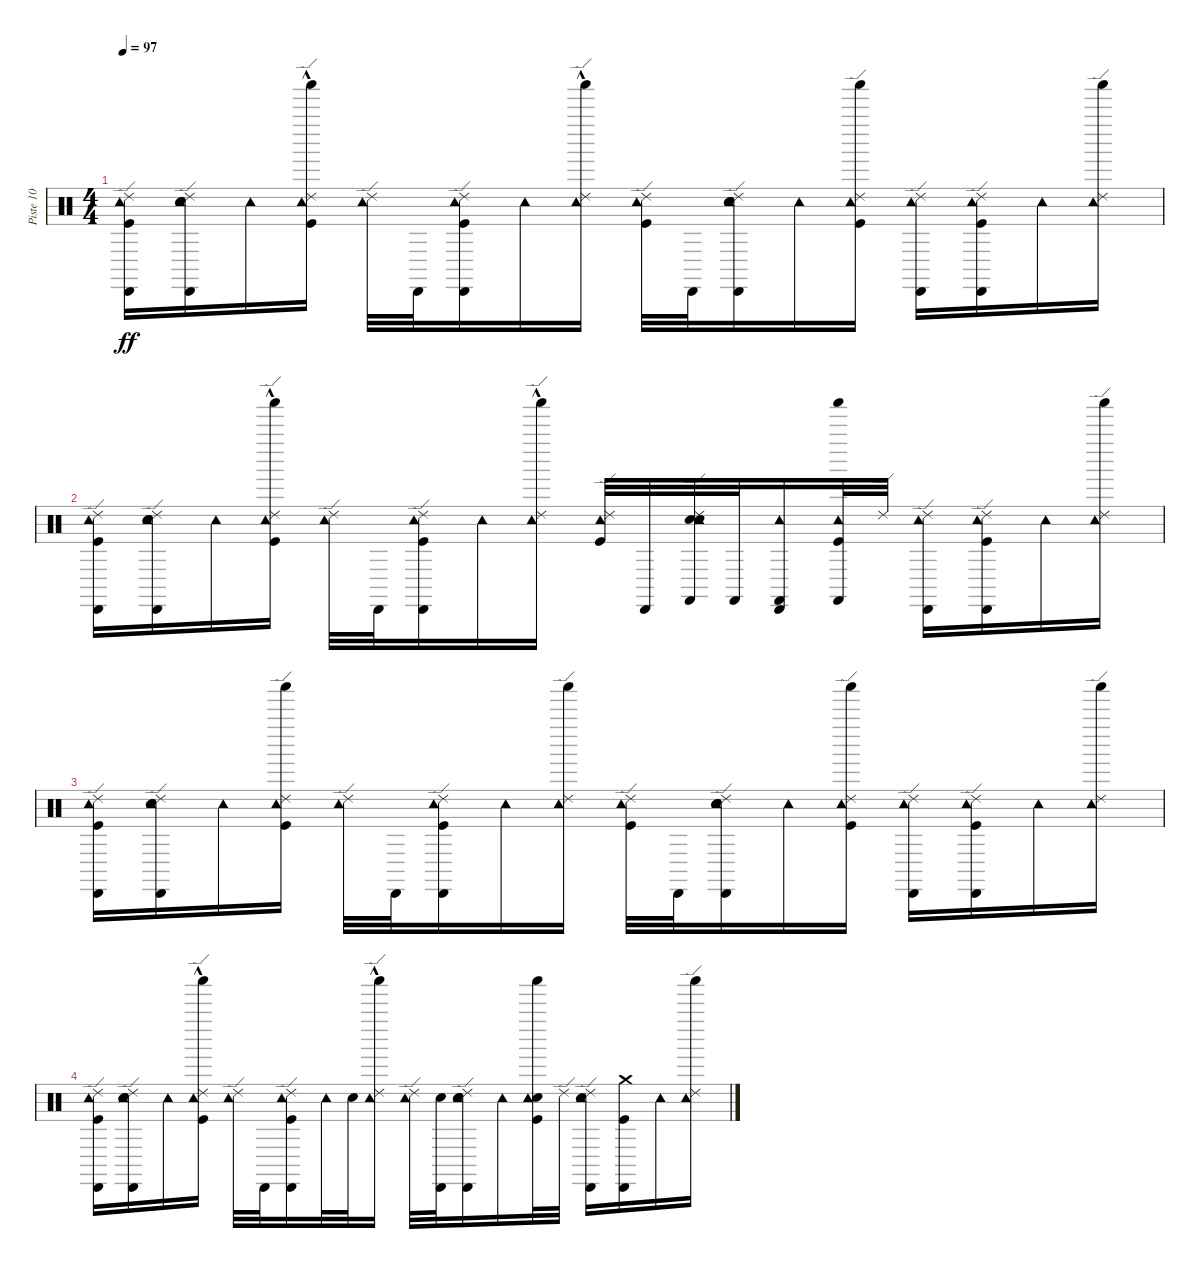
\track ("Piste 10" "Piste 10") {instrument percussion}
\staff {score}
\articulation defaults
\ts (4 4)
\tempo 97
\clef neutral
\ks c
("Cabasa (hit)" "Kick (hit)" "Tambourine (hit)" "Ride (edge) 2").16{dy ff} ("Cabasa (hit)" "Hand Clap (hit)" "Electric Snare (hit)" "Tambourine (hit)" "Ride (edge) 2").16 "Tambourine (hit)".16 ("Shaker (hit)"{hac} "Kick (hit)" "Tambourine (hit)" "Ride (edge) 2").16 ("Tambourine (hit)" "Ride (edge) 2").32 "Cabasa (hit)".32 ("Cabasa (hit)" "Kick (hit)" "Tambourine (hit)" "Ride (edge) 2").16 "Tambourine (hit)".16 ("Shaker (hit)"{hac} "Tambourine (hit)" "Ride (edge) 2").16 ("Kick (hit)" "Tambourine (hit)" "Ride (edge) 2").32 "Cabasa (hit)".32 ("Cabasa (hit)" "Hand Clap (hit)" "Electric Snare (hit)" "Tambourine (hit)" "Ride (edge) 2").16 "Tambourine (hit)".16 ("Shaker (hit)" "Kick (hit)" "Tambourine (hit)" "Ride (edge) 2").16 ("Cabasa (hit)" "Tambourine (hit)" "Ride (edge) 2").16 ("Cabasa (hit)" "Kick (hit)" "Tambourine (hit)" "Ride (edge) 2").16 "Tambourine (hit)".16 ("Shaker (hit)" "Tambourine (hit)" "Ride (edge) 2").16 |
("Cabasa (hit)" "Kick (hit)" "Tambourine (hit)" "Ride (edge) 2").16 ("Cabasa (hit)" "Hand Clap (hit)" "Electric Snare (hit)" "Tambourine (hit)" "Ride (edge) 2").16 "Tambourine (hit)".16 ("Shaker (hit)"{hac} "Kick (hit)" "Tambourine (hit)" "Ride (edge) 2").16 ("Tambourine (hit)" "Ride (edge) 2").32 "Cabasa (hit)".32 ("Cabasa (hit)" "Kick (hit)" "Tambourine (hit)" "Ride (edge) 2").16 "Tambourine (hit)".16 ("Shaker (hit)"{hac} "Tambourine (hit)" "Ride (edge) 2").16 ("Kick (hit)" "Tambourine (hit)" "Ride (edge) 2").32 "Cabasa (hit)".32 ("Castanets (hit)" "Hand Clap (hit)" "Electric Snare (hit)" "Tambourine (hit)" "Ride (edge) 2").32 "Castanets (hit)".32 ("Cabasa (hit)" "Castanets (hit)" "Tambourine (hit)").16 ("Shaker (hit)" "Castanets (hit)" "Kick (hit)" "Tambourine (hit)").32 "Ride (edge) 2".32 ("Cabasa (hit)" "Tambourine (hit)" "Ride (edge) 2").16 ("Cabasa (hit)" "Kick (hit)" "Tambourine (hit)" "Ride (edge) 2").16 "Tambourine (hit)".16 ("Shaker (hit)" "Tambourine (hit)" "Ride (edge) 2").16 |
("Cabasa (hit)" "Kick (hit)" "Tambourine (hit)" "Ride (edge) 2").16 ("Cabasa (hit)" "Hand Clap (hit)" "Electric Snare (hit)" "Tambourine (hit)" "Ride (edge) 2").16 "Tambourine (hit)".16 ("Shaker (hit)" "Kick (hit)" "Tambourine (hit)" "Ride (edge) 2").16 ("Tambourine (hit)" "Ride (edge) 2").32 "Cabasa (hit)".32 ("Cabasa (hit)" "Kick (hit)" "Tambourine (hit)" "Ride (edge) 2").16 "Tambourine (hit)".16 ("Shaker (hit)" "Tambourine (hit)" "Ride (edge) 2").16 ("Kick (hit)" "Tambourine (hit)" "Ride (edge) 2").32 "Cabasa (hit)".32 ("Cabasa (hit)" "Hand Clap (hit)" "Electric Snare (hit)" "Tambourine (hit)" "Ride (edge) 2").16 "Tambourine (hit)".16 ("Shaker (hit)" "Kick (hit)" "Tambourine (hit)" "Ride (edge) 2").16 ("Cabasa (hit)" "Tambourine (hit)" "Ride (edge) 2").16 ("Cabasa (hit)" "Kick (hit)" "Tambourine (hit)" "Ride (edge) 2").16 "Tambourine (hit)".16 ("Shaker (hit)" "Tambourine (hit)" "Ride (edge) 2").16 |
("Cabasa (hit)" "Kick (hit)" "Tambourine (hit)" "Ride (edge) 2").16 ("Cabasa (hit)" "Hand Clap (hit)" "Electric Snare (hit)" "Tambourine (hit)" "Ride (edge) 2").16 "Tambourine (hit)".16 ("Shaker (hit)"{hac} "Kick (hit)" "Tambourine (hit)" "Ride (edge) 2").16 ("Tambourine (hit)" "Ride (edge) 2").32 "Cabasa (hit)".32 ("Cabasa (hit)" "Kick (hit)" "Tambourine (hit)" "Ride (edge) 2").16 "Tambourine (hit)".32 "Electric Snare (hit)".32 ("Shaker (hit)"{hac} "Tambourine (hit)" "Ride (edge) 2").16 ("Tambourine (hit)" "Ride (edge) 2").32 ("Cabasa (hit)" "Electric Snare (hit)").32 ("Cabasa (hit)" "Hand Clap (hit)" "Electric Snare (hit)" "Tambourine (hit)" "Ride (edge) 2").16 "Tambourine (hit)".16 ("Shaker (hit)" "Kick (hit)" "Electric Snare (hit)" "Tambourine (hit)").32 "Ride (edge) 2".32 ("Cabasa (hit)" "Electric Snare (hit)" "Tambourine (hit)" "Ride (edge) 2").16 ("Cabasa (hit)" "Kick (hit)" "Crash medium (hit)").16 "Tambourine (hit)".16 ("Shaker (hit)" "Tambourine (hit)" "Ride (edge) 2").16
